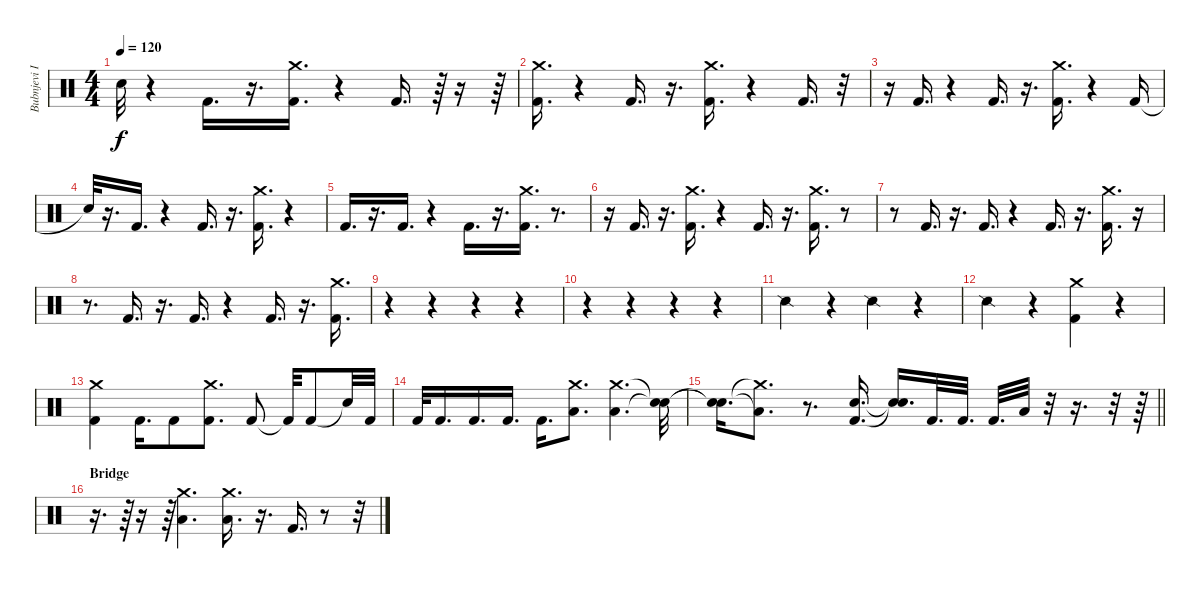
\track ("Bubnjevi Ipe Ivandic" "Bubnjevi I") {instrument percussion}
\staff {score}
\articulation defaults
\ts (4 4)
\tempo 120
\clef neutral
\ks c "Snare (hit)"{t}.32{dy f}
r.4 "Kick (hit) 2".16{d} r.16{d} ("Kick (hit) 2" "Crash medium (hit)").16{d} r.4 "Kick (hit) 2".16{d} r.64 r.16 r.64 |
("Kick (hit) 2" "Crash medium (hit)").16{d} r.4 "Kick (hit) 2".16{d} r.16{d} ("Kick (hit) 2" "Crash medium (hit)").16{d} r.4 "Kick (hit) 2".16{d} r.32 |
r.16 "Kick (hit) 2".16{d} r.4 "Kick (hit) 2".16{d} r.16{d} ("Kick (hit) 2" "Crash medium (hit)").16{d} r.4 "Kick (hit) 2".16 |
"Snare (hit)"{t}.32 r.16{d} "Kick (hit) 2".16{d} r.4 "Kick (hit) 2".16{d} r.16{d} ("Kick (hit) 2" "Crash medium (hit)").16{d} r.4 |
"Kick (hit) 2".16{d} r.16{d} "Kick (hit) 2".16{d} r.4 "Kick (hit) 2".16{d} r.16{d} ("Kick (hit) 2" "Crash medium (hit)").16{d} r.8{d} |
r.16 "Kick (hit) 2".16{d} r.16{d} ("Kick (hit) 2" "Crash medium (hit)").16{d} r.4 "Kick (hit) 2".16{d} r.16{d} ("Kick (hit) 2" "Crash medium (hit)").16{d} r.8 |
r.8 "Kick (hit) 2".16{d} r.16{d} "Kick (hit) 2".16{d} r.4 "Kick (hit) 2".16{d} r.16{d} ("Kick (hit) 2" "Crash medium (hit)").16{d} r.16 |
r.8{d} "Kick (hit) 2".16{d} r.16{d} "Kick (hit) 2".16{d} r.4 "Kick (hit) 2".16{d} r.16{d} ("Kick (hit) 2" "Crash medium (hit)").16{d} |
r.4 r.4 r.4 r.4 |
r.4 r.4 r.4 r.4 |
"Snare (side stick) 2".4 r.4 "Snare (side stick) 2".4 r.4 |
"Snare (side stick) 2".4 r.4 ("Kick (hit) 2" "Crash medium (hit)").4 r.4 |
("Kick (hit) 2" "Crash medium (hit)").4 "Kick (hit) 2".16{d} "Kick (hit) 2".8 ("Kick (hit) 2" "Crash medium (hit)").8{d} "Kick (hit) 2".8 "Kick (hit) 2"{t}.32 "Kick (hit) 2".8 "Snare (hit)"{t}.32 "Kick (hit) 2".32 |
"Kick (hit) 2".32 "Kick (hit) 2".16{d} "Kick (hit) 2".16{d} "Kick (hit) 2".16{d} "Kick (hit) 2".16{d} ("Low Tom (hit)" "Crash medium (hit)").8{d} ("Low Tom (hit)" "Crash medium (hit)").4{d} ("Snare (hit)"{t} "Snare (hit)"{t}).32 |
\barLineRight lightlight
("Snare (hit)"{t} "Snare (hit)"{t}).16{d} ("Low Tom (hit)"{t} "Crash medium (hit)"{t}).8{d} r.8{d} ("Kick (hit) 2" "Snare (hit) 2").16{d} ("Snare (hit)"{t} "Snare (hit)"{t}).16{d} "Kick (hit) 2".32{d} "Kick (hit) 2".32{d} "Kick (hit) 2".32{d} "Low Tom (hit)".32 r.32 r.16{d} r.32 r.64 |
\section ("" "Bridge")
r.16{d} r.64 r.16 r.64 ("Low Tom (hit)" "Crash medium (hit)").4{d} ("Low Tom (hit)" "Crash medium (hit)").16{d} r.16{d} "Kick (hit) 2".16{d} r.8 r.32
